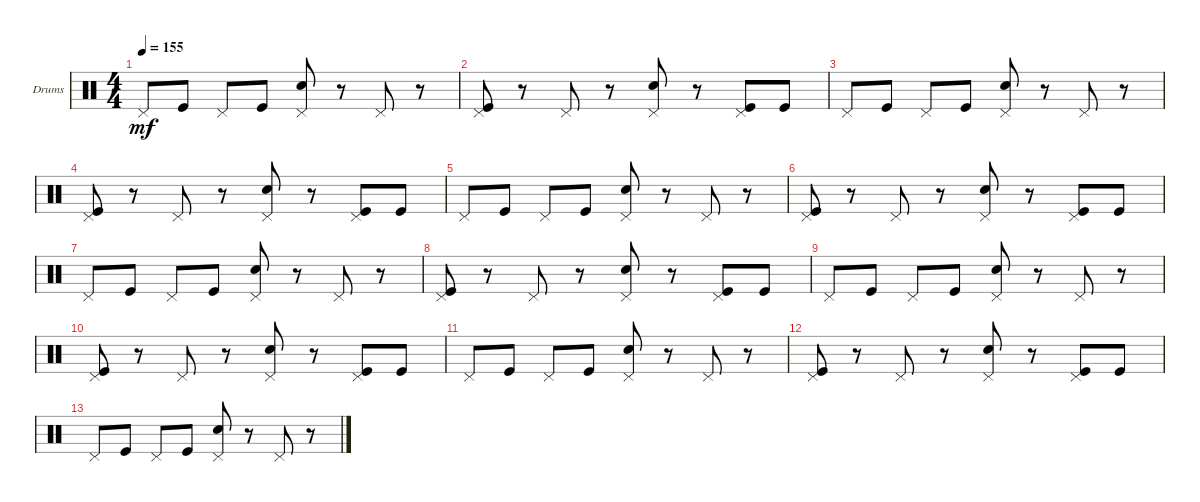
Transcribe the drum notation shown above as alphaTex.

\defaultSystemsLayout 4
\bracketExtendMode groupsimilarinstruments
\firstSystemTrackNameOrientation horizontal
\otherSystemsTrackNameOrientation horizontal
\track ("Drumkit" "Drums") {instrument percussion}
\staff {score}
\articulation defaults
\ts (4 4)
\tempo 155
\clef neutral
\ks c "Pedal Hi-Hat (hit)".8{dy mf} "Kick (hit)".8 "Pedal Hi-Hat (hit)".8 "Kick (hit)".8
("Pedal Hi-Hat (hit)" "Snare (hit) 2").8 r.8 "Pedal Hi-Hat (hit)".8 r.8 |
("Kick (hit)" "Pedal Hi-Hat (hit)").8 r.8 "Pedal Hi-Hat (hit)".8 r.8 ("Pedal Hi-Hat (hit)" "Snare (hit) 2").8 r.8 ("Kick (hit)" "Pedal Hi-Hat (hit)").8 "Kick (hit)".8 |
"Pedal Hi-Hat (hit)".8 "Kick (hit)".8 "Pedal Hi-Hat (hit)".8 "Kick (hit)".8 ("Pedal Hi-Hat (hit)" "Snare (hit) 2").8 r.8 "Pedal Hi-Hat (hit)".8 r.8 |
("Kick (hit)" "Pedal Hi-Hat (hit)").8 r.8 "Pedal Hi-Hat (hit)".8 r.8 ("Pedal Hi-Hat (hit)" "Snare (hit) 2").8 r.8 ("Kick (hit)" "Pedal Hi-Hat (hit)").8 "Kick (hit)".8 |
"Pedal Hi-Hat (hit)".8 "Kick (hit)".8 "Pedal Hi-Hat (hit)".8 "Kick (hit)".8 ("Pedal Hi-Hat (hit)" "Snare (hit) 2").8 r.8 "Pedal Hi-Hat (hit)".8 r.8 |
("Kick (hit)" "Pedal Hi-Hat (hit)").8 r.8 "Pedal Hi-Hat (hit)".8 r.8 ("Pedal Hi-Hat (hit)" "Snare (hit) 2").8 r.8 ("Kick (hit)" "Pedal Hi-Hat (hit)").8 "Kick (hit)".8 |
"Pedal Hi-Hat (hit)".8 "Kick (hit)".8 "Pedal Hi-Hat (hit)".8 "Kick (hit)".8 ("Pedal Hi-Hat (hit)" "Snare (hit) 2").8 r.8 "Pedal Hi-Hat (hit)".8 r.8 |
("Kick (hit)" "Pedal Hi-Hat (hit)").8 r.8 "Pedal Hi-Hat (hit)".8 r.8 ("Pedal Hi-Hat (hit)" "Snare (hit) 2").8 r.8 ("Kick (hit)" "Pedal Hi-Hat (hit)").8 "Kick (hit)".8 |
"Pedal Hi-Hat (hit)".8 "Kick (hit)".8 "Pedal Hi-Hat (hit)".8 "Kick (hit)".8 ("Pedal Hi-Hat (hit)" "Snare (hit) 2").8 r.8 "Pedal Hi-Hat (hit)".8 r.8 |
("Kick (hit)" "Pedal Hi-Hat (hit)").8 r.8 "Pedal Hi-Hat (hit)".8 r.8 ("Pedal Hi-Hat (hit)" "Snare (hit) 2").8 r.8 ("Kick (hit)" "Pedal Hi-Hat (hit)").8 "Kick (hit)".8 |
"Pedal Hi-Hat (hit)".8 "Kick (hit)".8 "Pedal Hi-Hat (hit)".8 "Kick (hit)".8 ("Pedal Hi-Hat (hit)" "Snare (hit) 2").8 r.8 "Pedal Hi-Hat (hit)".8 r.8 |
("Kick (hit)" "Pedal Hi-Hat (hit)").8 r.8 "Pedal Hi-Hat (hit)".8 r.8 ("Pedal Hi-Hat (hit)" "Snare (hit) 2").8 r.8 ("Kick (hit)" "Pedal Hi-Hat (hit)").8 "Kick (hit)".8 |
"Pedal Hi-Hat (hit)".8 "Kick (hit)".8 "Pedal Hi-Hat (hit)".8 "Kick (hit)".8 ("Pedal Hi-Hat (hit)" "Snare (hit) 2").8 r.8 "Pedal Hi-Hat (hit)".8 r.8
